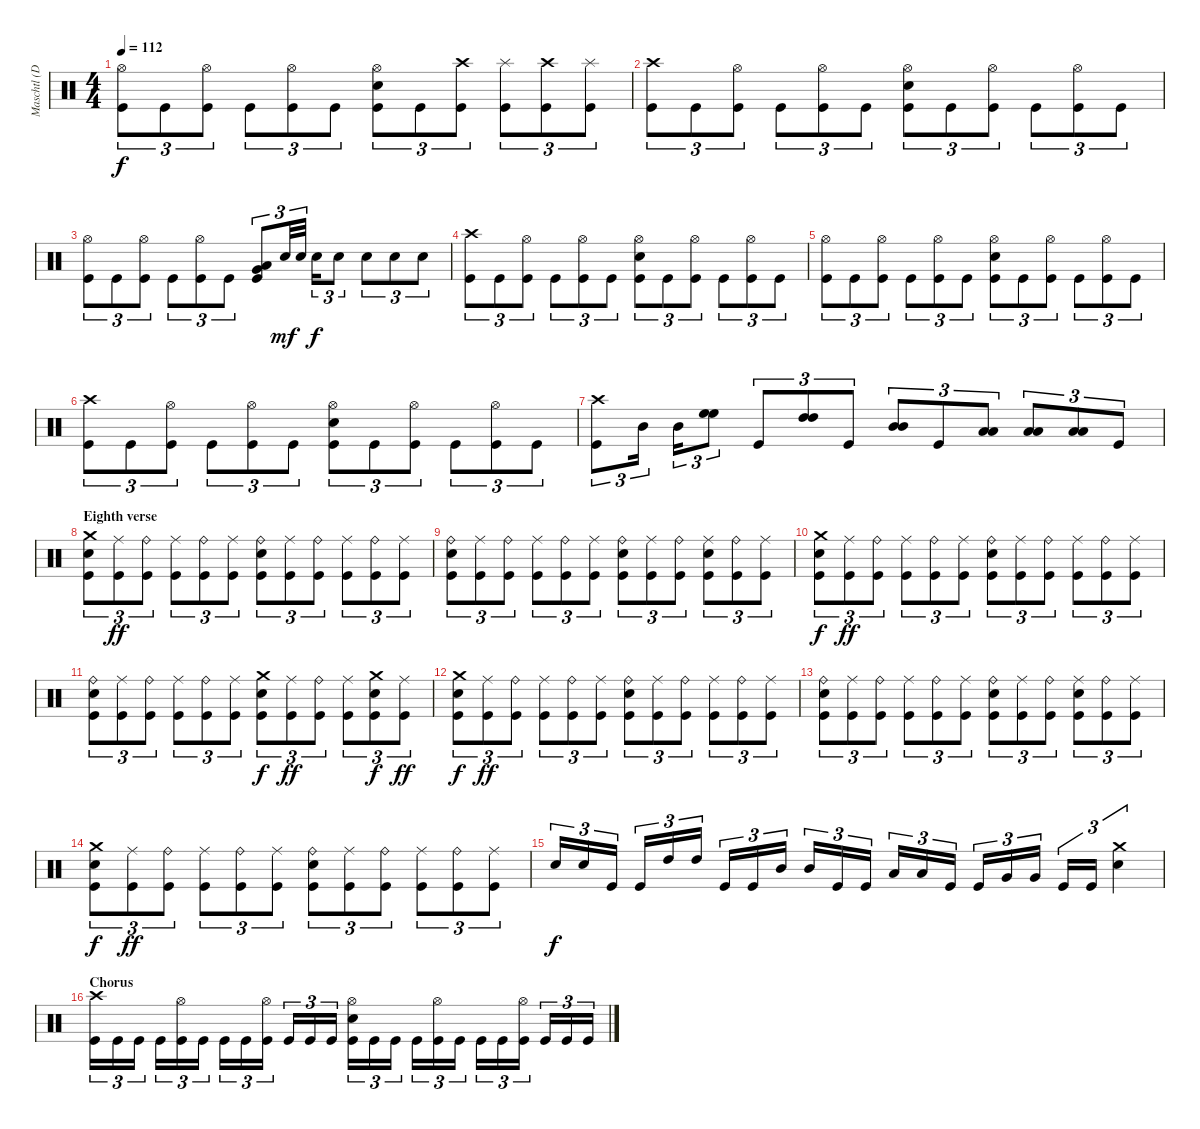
\track ("Maschtl (Drums)" "Maschtl (D") {instrument percussion}
\staff {score}
\articulation defaults
\ts (4 4)
\tempo 112
\clef neutral
\ks c
("Hi-Hat (open)" "Kick (hit)").8{tu (3 2) dy f} "Kick (hit)".8{tu (3 2)} ("Hi-Hat (open)" "Kick (hit)").8{tu (3 2)} "Kick (hit)".8{tu (3 2)} ("Hi-Hat (open)" "Kick (hit)").8{tu (3 2)} "Kick (hit)".8{tu (3 2)} ("Hi-Hat (open)" "Electric Snare (hit)" "Kick (hit)").8{tu (3 2)} "Kick (hit)".8{tu (3 2)} ("Crash high (hit)" "Kick (hit)").8{tu (3 2)} ("Splash (hit)" "Kick (hit)").8{tu (3 2)} ("Crash high (hit)" "Kick (hit)").8{tu (3 2)} ("Splash (hit)" "Kick (hit)").8{tu (3 2)} |
("Crash high (hit)" "Kick (hit)").8{tu (3 2)} "Kick (hit)".8{tu (3 2)} ("Hi-Hat (open)" "Kick (hit)").8{tu (3 2)} "Kick (hit)".8{tu (3 2)} ("Hi-Hat (open)" "Kick (hit)").8{tu (3 2)} "Kick (hit)".8{tu (3 2)} ("Hi-Hat (open)" "Electric Snare (hit)" "Kick (hit)").8{tu (3 2)} "Kick (hit)".8{tu (3 2)} ("Hi-Hat (open)" "Kick (hit)").8{tu (3 2)} "Kick (hit)".8{tu (3 2)} ("Hi-Hat (open)" "Kick (hit)").8{tu (3 2)} "Kick (hit)".8{tu (3 2)} |
("Hi-Hat (open)" "Kick (hit)").8{tu (3 2)} "Kick (hit)".8{tu (3 2)} ("Hi-Hat (open)" "Kick (hit)").8{tu (3 2)} "Kick (hit)".8{tu (3 2)} ("Hi-Hat (open)" "Kick (hit)").8{tu (3 2)} "Kick (hit)".8{tu (3 2)} ("Low Tom (hit)" "Very Low Tom (hit)" "Kick (hit)").8{tu (3 2) bd 60} "Electric Snare (hit)".32{tu (3 2) dy mf} "Electric Snare (hit)".32{tu (3 2)} "Electric Snare (hit)".16{tu (3 2) dy f} "Electric Snare (hit)".8{tu (3 2)} "Electric Snare (hit)".8{tu (3 2)} "Electric Snare (hit)".8{tu (3 2)} "Electric Snare (hit)".8{tu (3 2)} |
("Crash high (hit)" "Kick (hit)").8{tu (3 2)} "Kick (hit)".8{tu (3 2)} ("Hi-Hat (open)" "Kick (hit)").8{tu (3 2)} "Kick (hit)".8{tu (3 2)} ("Hi-Hat (open)" "Kick (hit)").8{tu (3 2)} "Kick (hit)".8{tu (3 2)} ("Hi-Hat (open)" "Electric Snare (hit)" "Kick (hit)").8{tu (3 2)} "Kick (hit)".8{tu (3 2)} ("Hi-Hat (open)" "Kick (hit)").8{tu (3 2)} "Kick (hit)".8{tu (3 2)} ("Hi-Hat (open)" "Kick (hit)").8{tu (3 2)} "Kick (hit)".8{tu (3 2)} |
("Hi-Hat (open)" "Kick (hit)").8{tu (3 2)} "Kick (hit)".8{tu (3 2)} ("Hi-Hat (open)" "Kick (hit)").8{tu (3 2)} "Kick (hit)".8{tu (3 2)} ("Hi-Hat (open)" "Kick (hit)").8{tu (3 2)} "Kick (hit)".8{tu (3 2)} ("Hi-Hat (open)" "Electric Snare (hit)" "Kick (hit)").8{tu (3 2)} "Kick (hit)".8{tu (3 2)} ("Hi-Hat (open)" "Kick (hit)").8{tu (3 2)} "Kick (hit)".8{tu (3 2)} ("Hi-Hat (open)" "Kick (hit)").8{tu (3 2)} "Kick (hit)".8{tu (3 2)} |
("Crash high (hit)" "Kick (hit)").8{tu (3 2)} "Kick (hit)".8{tu (3 2)} ("Hi-Hat (open)" "Kick (hit)").8{tu (3 2)} "Kick (hit)".8{tu (3 2)} ("Hi-Hat (open)" "Kick (hit)").8{tu (3 2)} "Kick (hit)".8{tu (3 2)} ("Hi-Hat (open)" "Electric Snare (hit)" "Kick (hit)").8{tu (3 2)} "Kick (hit)".8{tu (3 2)} ("Hi-Hat (open)" "Kick (hit)").8{tu (3 2)} "Kick (hit)".8{tu (3 2)} ("Hi-Hat (open)" "Kick (hit)").8{tu (3 2)} "Kick (hit)".8{tu (3 2)} |
("Crash high (hit)" "Kick (hit)").8{tu (3 2)} "Mid Tom (hit)".16{tu (3 2)} "Mid Tom (hit)".16{tu (3 2)} ("High Floor Tom (hit)" "High Floor Tom (hit)").8{tu (3 2) bu 60} "Kick (hit)".8{tu (3 2)} ("High Tom (hit)" "High Tom (hit)").8{tu (3 2) bu 60} "Kick (hit)".8{tu (3 2)} ("Mid Tom (hit)" "Mid Tom (hit)").8{tu (3 2) bu 60} "Kick (hit)".8{tu (3 2)} ("Low Tom (hit)" "Low Tom (hit)").8{tu (3 2) bu 60} ("Low Tom (hit)" "Low Tom (hit)").8{tu (3 2) bu 60} ("Low Tom (hit)" "Low Tom (hit)").8{tu (3 2) bu 60} "Kick (hit)".8{tu (3 2)} |
\section ("" "Eighth verse")
("Crash medium (hit)" "Electric Snare (hit)" "Kick (hit)").8{tu (3 2)} ("Ride (middle)" "Kick (hit)").8{tu (3 2) dy ff} ("Ride (bell)" "Kick (hit)").8{tu (3 2)} ("Ride (middle)" "Kick (hit)").8{tu (3 2)} ("Ride (bell)" "Kick (hit)").8{tu (3 2)} ("Ride (middle)" "Kick (hit)").8{tu (3 2)} ("Ride (bell)" "Electric Snare (hit)" "Kick (hit)").8{tu (3 2)} ("Ride (middle)" "Kick (hit)").8{tu (3 2)} ("Ride (bell)" "Kick (hit)").8{tu (3 2)} ("Ride (middle)" "Kick (hit)").8{tu (3 2)} ("Ride (bell)" "Kick (hit)").8{tu (3 2)} ("Ride (middle)" "Kick (hit)").8{tu (3 2)} |
("Ride (bell)" "Electric Snare (hit)" "Kick (hit)").8{tu (3 2)} ("Ride (middle)" "Kick (hit)").8{tu (3 2)} ("Ride (bell)" "Kick (hit)").8{tu (3 2)} ("Ride (middle)" "Kick (hit)").8{tu (3 2)} ("Ride (bell)" "Kick (hit)").8{tu (3 2)} ("Ride (middle)" "Kick (hit)").8{tu (3 2)} ("Ride (bell)" "Electric Snare (hit)" "Kick (hit)").8{tu (3 2)} ("Ride (middle)" "Kick (hit)").8{tu (3 2)} ("Ride (bell)" "Kick (hit)").8{tu (3 2)} ("Ride (middle)" "Electric Snare (hit)" "Kick (hit)").8{tu (3 2)} ("Ride (bell)" "Kick (hit)").8{tu (3 2)} ("Ride (middle)" "Kick (hit)").8{tu (3 2)} |
("Crash medium (hit)" "Electric Snare (hit)" "Kick (hit)").8{tu (3 2) dy f} ("Ride (middle)" "Kick (hit)").8{tu (3 2) dy ff} ("Ride (bell)" "Kick (hit)").8{tu (3 2)} ("Ride (middle)" "Kick (hit)").8{tu (3 2)} ("Ride (bell)" "Kick (hit)").8{tu (3 2)} ("Ride (middle)" "Kick (hit)").8{tu (3 2)} ("Ride (bell)" "Electric Snare (hit)" "Kick (hit)").8{tu (3 2)} ("Ride (middle)" "Kick (hit)").8{tu (3 2)} ("Ride (bell)" "Kick (hit)").8{tu (3 2)} ("Ride (middle)" "Kick (hit)").8{tu (3 2)} ("Ride (bell)" "Kick (hit)").8{tu (3 2)} ("Ride (middle)" "Kick (hit)").8{tu (3 2)} |
("Ride (bell)" "Electric Snare (hit)" "Kick (hit)").8{tu (3 2)} ("Ride (middle)" "Kick (hit)").8{tu (3 2)} ("Ride (bell)" "Kick (hit)").8{tu (3 2)} ("Ride (middle)" "Kick (hit)").8{tu (3 2)} ("Ride (bell)" "Kick (hit)").8{tu (3 2)} ("Ride (middle)" "Kick (hit)").8{tu (3 2)} ("Crash medium (hit)" "Electric Snare (hit)" "Kick (hit)").8{tu (3 2) dy f} ("Ride (middle)" "Kick (hit)").8{tu (3 2) dy ff} ("Ride (bell)" "Kick (hit)").8{tu (3 2)} ("Ride (middle)" "Kick (hit)").8{tu (3 2)} ("Crash medium (hit)" "Electric Snare (hit)" "Kick (hit)").8{tu (3 2) dy f} ("Ride (middle)" "Kick (hit)").8{tu (3 2) dy ff} |
("Crash medium (hit)" "Electric Snare (hit)" "Kick (hit)").8{tu (3 2) dy f} ("Ride (middle)" "Kick (hit)").8{tu (3 2) dy ff} ("Ride (bell)" "Kick (hit)").8{tu (3 2)} ("Ride (middle)" "Kick (hit)").8{tu (3 2)} ("Ride (bell)" "Kick (hit)").8{tu (3 2)} ("Ride (middle)" "Kick (hit)").8{tu (3 2)} ("Ride (bell)" "Electric Snare (hit)" "Kick (hit)").8{tu (3 2)} ("Ride (middle)" "Kick (hit)").8{tu (3 2)} ("Ride (bell)" "Kick (hit)").8{tu (3 2)} ("Ride (middle)" "Kick (hit)").8{tu (3 2)} ("Ride (bell)" "Kick (hit)").8{tu (3 2)} ("Ride (middle)" "Kick (hit)").8{tu (3 2)} |
("Ride (bell)" "Electric Snare (hit)" "Kick (hit)").8{tu (3 2)} ("Ride (middle)" "Kick (hit)").8{tu (3 2)} ("Ride (bell)" "Kick (hit)").8{tu (3 2)} ("Ride (middle)" "Kick (hit)").8{tu (3 2)} ("Ride (bell)" "Kick (hit)").8{tu (3 2)} ("Ride (middle)" "Kick (hit)").8{tu (3 2)} ("Ride (bell)" "Electric Snare (hit)" "Kick (hit)").8{tu (3 2)} ("Ride (middle)" "Kick (hit)").8{tu (3 2)} ("Ride (bell)" "Kick (hit)").8{tu (3 2)} ("Ride (middle)" "Electric Snare (hit)" "Kick (hit)").8{tu (3 2)} ("Ride (bell)" "Kick (hit)").8{tu (3 2)} ("Ride (middle)" "Kick (hit)").8{tu (3 2)} |
("Crash medium (hit)" "Electric Snare (hit)" "Kick (hit)").8{tu (3 2) dy f} ("Ride (middle)" "Kick (hit)").8{tu (3 2) dy ff} ("Ride (bell)" "Kick (hit)").8{tu (3 2)} ("Ride (middle)" "Kick (hit)").8{tu (3 2)} ("Ride (bell)" "Kick (hit)").8{tu (3 2)} ("Ride (middle)" "Kick (hit)").8{tu (3 2)} ("Ride (bell)" "Electric Snare (hit)" "Kick (hit)").8{tu (3 2)} ("Ride (middle)" "Kick (hit)").8{tu (3 2)} ("Ride (bell)" "Kick (hit)").8{tu (3 2)} ("Ride (middle)" "Kick (hit)").8{tu (3 2)} ("Ride (bell)" "Kick (hit)").8{tu (3 2)} ("Ride (middle)" "Kick (hit)").8{tu (3 2)} |
"Electric Snare (hit)".16{tu (3 2) dy f} "Electric Snare (hit)".16{tu (3 2)} "Kick (hit)".16{tu (3 2)} "Kick (hit)".16{tu (3 2)} "High Tom (hit)".16{tu (3 2)} "High Tom (hit)".16{tu (3 2)} "Kick (hit)".16{tu (3 2)} "Kick (hit)".16{tu (3 2)} "Mid Tom (hit)".16{tu (3 2)} "Mid Tom (hit)".16{tu (3 2)} "Kick (hit)".16{tu (3 2)} "Kick (hit)".16{tu (3 2)} "Low Tom (hit)".16{tu (3 2)} "Low Tom (hit)".16{tu (3 2)} "Kick (hit)".16{tu (3 2)} "Kick (hit)".16{tu (3 2)} "Very Low Tom (hit)".16{tu (3 2)} "Very Low Tom (hit)".16{tu (3 2)} "Kick (hit)".16{tu (3 2)} "Kick (hit)".16{tu (3 2)} ("Crash medium (hit)" "Electric Snare (hit)").4{tu (3 2)} |
\section ("" "Chorus")
("Crash high (hit)" "Kick (hit)").16{tu (3 2)} "Kick (hit)".16{tu (3 2)} "Kick (hit)".16{tu (3 2)} "Kick (hit)".16{tu (3 2)} ("Hi-Hat (open)" "Kick (hit)").16{tu (3 2)} "Kick (hit)".16{tu (3 2)} "Kick (hit)".16{tu (3 2)} "Kick (hit)".16{tu (3 2)} ("Hi-Hat (open)" "Kick (hit)").16{tu (3 2)} "Kick (hit)".16{tu (3 2)} "Kick (hit)".16{tu (3 2)} "Kick (hit)".16{tu (3 2)} ("Hi-Hat (open)" "Electric Snare (hit)" "Kick (hit)").16{tu (3 2)} "Kick (hit)".16{tu (3 2)} "Kick (hit)".16{tu (3 2)} "Kick (hit)".16{tu (3 2)} ("Hi-Hat (open)" "Kick (hit)").16{tu (3 2)} "Kick (hit)".16{tu (3 2)} "Kick (hit)".16{tu (3 2)} "Kick (hit)".16{tu (3 2)} ("Hi-Hat (open)" "Kick (hit)").16{tu (3 2)} "Kick (hit)".16{tu (3 2)} "Kick (hit)".16{tu (3 2)} "Kick (hit)".16{tu (3 2)}
